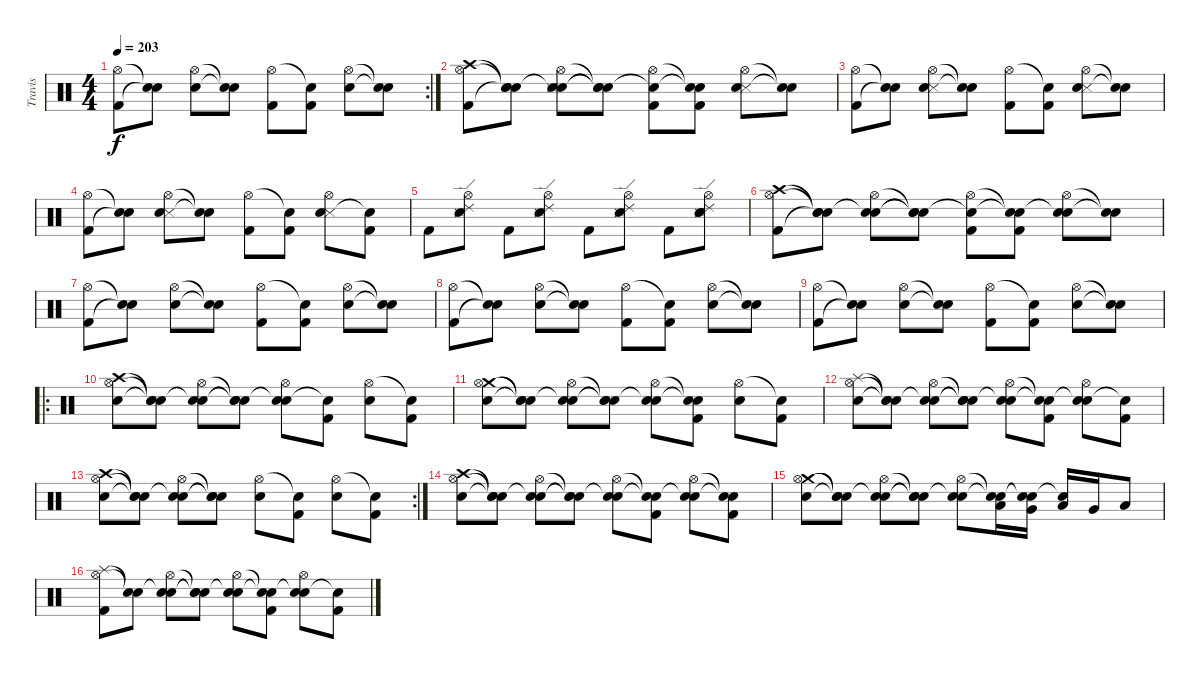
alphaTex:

\track ("Travis" "Travis") {instrument percussion}
\staff {score}
\articulation defaults
\rc 2
\ts (4 4)
\tempo 203
\clef neutral
\ks c
("Hi-Hat (open)" "Kick (hit) 2").8{dy f} ("Snare (hit)"{t} "Snare (hit)"{t}).8 ("Hi-Hat (open)" "Electric Snare (hit)").8 ("Snare (hit)"{t} "Snare (hit)"{t}).8 ("Hi-Hat (open)" "Kick (hit) 2").8 ("Snare (hit)"{t} "Kick (hit) 2").8 ("Hi-Hat (open)" "Electric Snare (hit)").8 ("Snare (hit)"{t} "Snare (hit)"{t}).8 |
("Crash high (hit)" "Hi-Hat (open)" "Kick (hit) 2").8 ("Snare (hit)"{t} "Snare (hit)"{t} "Snare (hit)"{t}).8 ("Snare (hit)"{t} "Snare (side stick) 3" "Hi-Hat (open)" "Electric Snare (hit)").8 ("Snare (hit)"{t} "Snare (hit)"{t} "Snare (hit)"{t}).8 ("Snare (hit)"{t} "Hi-Hat (open)" "Kick (hit) 2").8 ("Snare (hit)"{t} "Snare (hit)"{t} "Kick (hit) 2").8 ("Snare (side stick) 3" "Hi-Hat (open)" "Electric Snare (hit)").8 ("Snare (hit)"{t} "Snare (hit)"{t}).8 |
("Hi-Hat (open)" "Kick (hit) 2").8 ("Snare (hit)"{t} "Snare (hit)"{t}).8 ("Snare (side stick) 3" "Hi-Hat (open)" "Electric Snare (hit)").8 ("Snare (hit)"{t} "Snare (hit)"{t}).8 ("Hi-Hat (open)" "Kick (hit) 2").8 ("Snare (hit)"{t} "Kick (hit) 2").8 ("Snare (side stick) 3" "Hi-Hat (open)" "Electric Snare (hit)").8 ("Snare (hit)"{t} "Snare (hit)"{t}).8 |
("Hi-Hat (open)" "Kick (hit) 2").8 ("Snare (hit)"{t} "Snare (hit)"{t}).8 ("Snare (side stick) 3" "Hi-Hat (open)" "Electric Snare (hit)").8 ("Snare (hit)"{t} "Snare (hit)"{t}).8 ("Hi-Hat (open)" "Kick (hit) 2").8 ("Snare (hit)"{t} "Kick (hit) 2").8 ("Snare (side stick) 3" "Hi-Hat (open)" "Electric Snare (hit)").8 ("Snare (hit)"{t} "Kick (hit) 2").8 |
"Kick (hit) 2".8 ("Ride (edge) 2" "Snare (side stick) 3" "Hi-Hat (open)" "Electric Snare (hit)").8 "Kick (hit) 2".8 ("Ride (edge) 2" "Snare (side stick) 3" "Hi-Hat (open)" "Electric Snare (hit)").8 "Kick (hit) 2".8 ("Ride (edge) 2" "Snare (side stick) 3" "Hi-Hat (open)" "Electric Snare (hit)").8 "Kick (hit) 2".8 ("Ride (edge) 2" "Snare (side stick) 3" "Hi-Hat (open)" "Electric Snare (hit)" "Snare (hit)").8 |
("Crash high (hit)" "Hi-Hat (open)" "Kick (hit) 2").8 ("Snare (hit)"{t} "Snare (hit)"{t} "Snare (hit)"{t}).8 ("Snare (hit)"{t} "Hi-Hat (open)" "Electric Snare (hit)").8 ("Snare (hit)"{t} "Snare (hit)"{t} "Snare (hit)"{t}).8 ("Snare (hit)"{t} "Hi-Hat (open)" "Kick (hit) 2").8 ("Snare (hit)"{t} "Snare (hit)"{t} "Kick (hit) 2").8 ("Snare (hit)"{t} "Hi-Hat (open)" "Electric Snare (hit)").8 ("Snare (hit)"{t} "Snare (hit)"{t}).8 |
("Hi-Hat (open)" "Kick (hit) 2").8 ("Snare (hit)"{t} "Snare (hit)"{t}).8 ("Hi-Hat (open)" "Electric Snare (hit)").8 ("Snare (hit)"{t} "Snare (hit)"{t}).8 ("Hi-Hat (open)" "Kick (hit) 2").8 ("Snare (hit)"{t} "Kick (hit) 2").8 ("Hi-Hat (open)" "Electric Snare (hit)").8 ("Snare (hit)"{t} "Snare (hit)"{t}).8 |
("Hi-Hat (open)" "Kick (hit) 2").8 ("Snare (hit)"{t} "Snare (hit)"{t}).8 ("Hi-Hat (open)" "Electric Snare (hit)").8 ("Snare (hit)"{t} "Snare (hit)"{t}).8 ("Hi-Hat (open)" "Kick (hit) 2").8 ("Snare (hit)"{t} "Kick (hit) 2").8 ("Hi-Hat (open)" "Electric Snare (hit)").8 ("Snare (hit)"{t} "Snare (hit)"{t}).8 |
("Hi-Hat (open)" "Kick (hit) 2").8 ("Snare (hit)"{t} "Snare (hit)"{t}).8 ("Hi-Hat (open)" "Electric Snare (hit)").8 ("Snare (hit)"{t} "Snare (hit)"{t}).8 ("Hi-Hat (open)" "Kick (hit) 2").8 ("Snare (hit)"{t} "Kick (hit) 2").8 ("Hi-Hat (open)" "Electric Snare (hit)").8 ("Snare (hit)"{t} "Snare (hit)"{t}).8 |
\ro
("Crash high (hit)" "Hi-Hat (open)" "Electric Snare (hit)").8 ("Snare (hit)"{t} "Snare (hit)"{t} "Snare (hit)"{t}).8 ("Snare (hit)"{t} "Hi-Hat (open)" "Electric Snare (hit)").8 ("Snare (hit)"{t} "Snare (hit)"{t} "Snare (hit)"{t}).8 ("Snare (hit)"{t} "Hi-Hat (open)" "Electric Snare (hit)").8 ("Snare (hit)"{t} "Kick (hit) 2").8 ("Hi-Hat (open)" "Electric Snare (hit)").8 ("Snare (hit)"{t} "Kick (hit) 2").8 |
("Crash medium (hit)" "Hi-Hat (open)" "Electric Snare (hit)").8 ("Snare (hit)"{t} "Snare (hit)"{t} "Snare (hit)"{t}).8 ("Snare (hit)"{t} "Hi-Hat (open)" "Electric Snare (hit)").8 ("Snare (hit)"{t} "Snare (hit)"{t} "Snare (hit)"{t}).8 ("Snare (hit)"{t} "Hi-Hat (open)" "Electric Snare (hit)").8 ("Snare (hit)"{t} "Snare (hit)"{t} "Kick (hit) 2").8 ("Hi-Hat (open)" "Electric Snare (hit)").8 ("Snare (hit)"{t} "Kick (hit) 2").8 |
("Splash (hit)" "Hi-Hat (open)" "Electric Snare (hit)").8 ("Snare (hit)"{t} "Snare (hit)"{t} "Snare (hit)"{t}).8 ("Snare (hit)"{t} "Hi-Hat (open)" "Electric Snare (hit)").8 ("Snare (hit)"{t} "Snare (hit)"{t} "Snare (hit)"{t}).8 ("Snare (hit)"{t} "Hi-Hat (open)" "Electric Snare (hit)").8 ("Snare (hit)"{t} "Snare (hit)"{t} "Kick (hit) 2").8 ("Snare (hit)"{t} "Hi-Hat (open)" "Electric Snare (hit)").8 ("Snare (hit)"{t} "Kick (hit) 2").8 |
\rc 2
("Crash high (hit)" "Hi-Hat (open)" "Electric Snare (hit)").8 ("Snare (hit)"{t} "Snare (hit)"{t} "Snare (hit)"{t}).8 ("Snare (hit)"{t} "Hi-Hat (open)" "Electric Snare (hit)").8 ("Snare (hit)"{t} "Snare (hit)"{t} "Snare (hit)"{t}).8 ("Hi-Hat (open)" "Electric Snare (hit)").8 ("Snare (hit)"{t} "Kick (hit) 2").8 ("Hi-Hat (open)" "Electric Snare (hit)").8 ("Snare (hit)"{t} "Kick (hit) 2").8 |
("Crash high (hit)" "Hi-Hat (open)" "Electric Snare (hit)").8 ("Snare (hit)"{t} "Snare (hit)"{t} "Snare (hit)"{t}).8 ("Snare (hit)"{t} "Hi-Hat (open)" "Electric Snare (hit)").8 ("Snare (hit)"{t} "Snare (hit)"{t} "Snare (hit)"{t}).8 ("Snare (hit)"{t} "Hi-Hat (open)" "Electric Snare (hit)").8 ("Snare (hit)"{t} "Snare (hit)"{t} "Kick (hit) 2").8 ("Snare (hit)"{t} "Hi-Hat (open)" "Electric Snare (hit)").8 ("Snare (hit)"{t} "Snare (hit)"{t} "Kick (hit) 2").8 |
("Crash medium (hit)" "Hi-Hat (open)" "Electric Snare (hit)").8 ("Snare (hit)"{t} "Snare (hit)"{t} "Snare (hit)"{t}).8 ("Snare (hit)"{t} "Hi-Hat (open)" "Electric Snare (hit)").8 ("Snare (hit)"{t} "Snare (hit)"{t} "Snare (hit)"{t}).8 ("Snare (hit)"{t} "Hi-Hat (open)" "Electric Snare (hit)").8 ("Snare (hit)"{t} "Snare (hit)"{t} "Low Tom (hit)").16 ("Snare (hit)"{t} "Snare (hit)"{t} "Very Low Tom (hit)").16 ("Snare (hit)"{t} "Low Tom (hit)").16 "Very Low Tom (hit)".16 "Low Tom (hit)".8 |
("Splash (hit)" "Hi-Hat (open)" "Kick (hit) 2").8 ("Snare (hit)"{t} "Snare (hit)"{t}).8 ("Snare (hit)"{t} "Hi-Hat (open)" "Electric Snare (hit)").8 ("Snare (hit)"{t} "Snare (hit)"{t} "Snare (hit)"{t}).8 ("Snare (hit)"{t} "Hi-Hat (open)" "Electric Snare (hit)").8 ("Snare (hit)"{t} "Snare (hit)"{t} "Kick (hit) 2").8 ("Snare (hit)"{t} "Hi-Hat (open)" "Electric Snare (hit)").8 ("Snare (hit)"{t} "Kick (hit) 2").8
